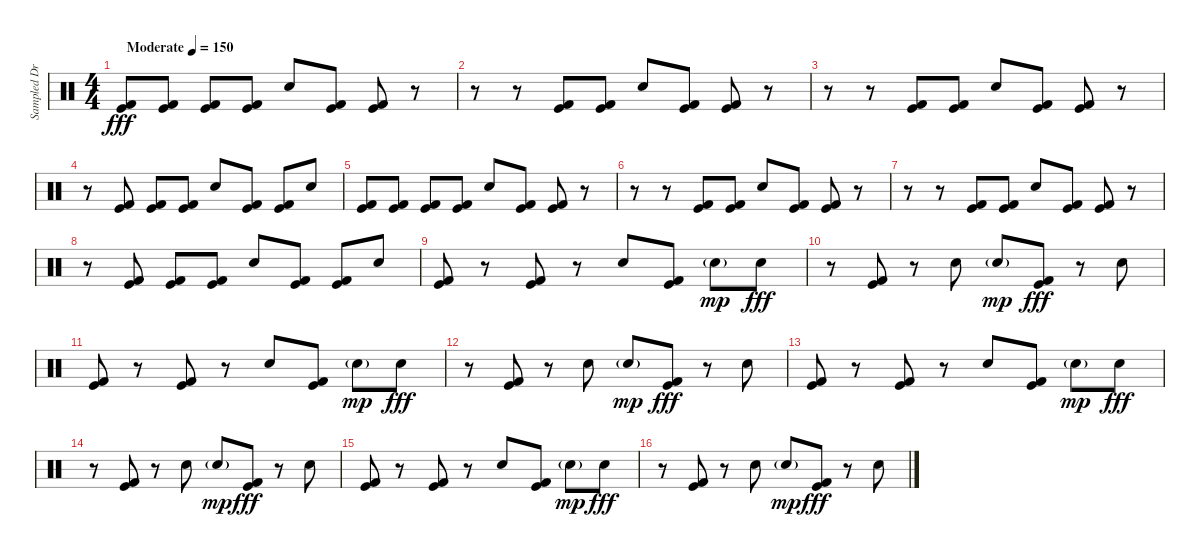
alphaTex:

\track ("Sampled Drums" "Sampled Dr") {instrument percussion}
\staff {score}
\articulation defaults
\ts (4 4)
\tempo (150 "Moderate")
\clef neutral
\ks c
("Kick (hit)" "Kick (hit) 2").8{dy fff} ("Kick (hit)" "Kick (hit) 2").8 ("Kick (hit)" "Kick (hit) 2").8 ("Kick (hit)" "Kick (hit) 2").8 "Electric Snare (hit)".8 ("Kick (hit)" "Kick (hit) 2").8 ("Kick (hit)" "Kick (hit) 2").8 r.8 |
r.8 r.8 ("Kick (hit)" "Kick (hit) 2").8 ("Kick (hit)" "Kick (hit) 2").8 "Electric Snare (hit)".8 ("Kick (hit)" "Kick (hit) 2").8 ("Kick (hit)" "Kick (hit) 2").8 r.8 |
r.8 r.8 ("Kick (hit)" "Kick (hit) 2").8 ("Kick (hit)" "Kick (hit) 2").8 "Electric Snare (hit)".8 ("Kick (hit)" "Kick (hit) 2").8 ("Kick (hit)" "Kick (hit) 2").8 r.8 |
r.8 ("Kick (hit)" "Kick (hit) 2").8 ("Kick (hit)" "Kick (hit) 2").8 ("Kick (hit)" "Kick (hit) 2").8 "Electric Snare (hit)".8 ("Kick (hit)" "Kick (hit) 2").8 ("Kick (hit)" "Kick (hit) 2").8 "Electric Snare (hit)".8 |
("Kick (hit)" "Kick (hit) 2").8 ("Kick (hit)" "Kick (hit) 2").8 ("Kick (hit)" "Kick (hit) 2").8 ("Kick (hit)" "Kick (hit) 2").8 "Electric Snare (hit)".8 ("Kick (hit)" "Kick (hit) 2").8 ("Kick (hit)" "Kick (hit) 2").8 r.8 |
r.8 r.8 ("Kick (hit)" "Kick (hit) 2").8 ("Kick (hit)" "Kick (hit) 2").8 "Electric Snare (hit)".8 ("Kick (hit)" "Kick (hit) 2").8 ("Kick (hit)" "Kick (hit) 2").8 r.8 |
r.8 r.8 ("Kick (hit)" "Kick (hit) 2").8 ("Kick (hit)" "Kick (hit) 2").8 "Electric Snare (hit)".8 ("Kick (hit)" "Kick (hit) 2").8 ("Kick (hit)" "Kick (hit) 2").8 r.8 |
r.8 ("Kick (hit)" "Kick (hit) 2").8 ("Kick (hit)" "Kick (hit) 2").8 ("Kick (hit)" "Kick (hit) 2").8 "Electric Snare (hit)".8 ("Kick (hit)" "Kick (hit) 2").8 ("Kick (hit)" "Kick (hit) 2").8 "Electric Snare (hit)".8 |
("Kick (hit)" "Kick (hit) 2").8 r.8 ("Kick (hit)" "Kick (hit) 2").8 r.8 "Electric Snare (hit)".8 ("Kick (hit)" "Kick (hit) 2").8 "Electric Snare (hit)"{g}.8{dy mp} "Electric Snare (hit)".8{dy fff} |
r.8 ("Kick (hit)" "Kick (hit) 2").8 r.8 "Electric Snare (hit)".8 "Electric Snare (hit)"{g}.8{dy mp} ("Kick (hit)" "Kick (hit) 2").8{dy fff} r.8 "Electric Snare (hit)".8 |
("Kick (hit)" "Kick (hit) 2").8 r.8 ("Kick (hit)" "Kick (hit) 2").8 r.8 "Electric Snare (hit)".8 ("Kick (hit)" "Kick (hit) 2").8 "Electric Snare (hit)"{g}.8{dy mp} "Electric Snare (hit)".8{dy fff} |
r.8 ("Kick (hit)" "Kick (hit) 2").8 r.8 "Electric Snare (hit)".8 "Electric Snare (hit)"{g}.8{dy mp} ("Kick (hit)" "Kick (hit) 2").8{dy fff} r.8 "Electric Snare (hit)".8 |
("Kick (hit)" "Kick (hit) 2").8 r.8 ("Kick (hit)" "Kick (hit) 2").8 r.8 "Electric Snare (hit)".8 ("Kick (hit)" "Kick (hit) 2").8 "Electric Snare (hit)"{g}.8{dy mp} "Electric Snare (hit)".8{dy fff} |
r.8 ("Kick (hit)" "Kick (hit) 2").8 r.8 "Electric Snare (hit)".8 "Electric Snare (hit)"{g}.8{dy mp} ("Kick (hit)" "Kick (hit) 2").8{dy fff} r.8 "Electric Snare (hit)".8 |
("Kick (hit)" "Kick (hit) 2").8 r.8 ("Kick (hit)" "Kick (hit) 2").8 r.8 "Electric Snare (hit)".8 ("Kick (hit)" "Kick (hit) 2").8 "Electric Snare (hit)"{g}.8{dy mp} "Electric Snare (hit)".8{dy fff} |
r.8 ("Kick (hit)" "Kick (hit) 2").8 r.8 "Electric Snare (hit)".8 "Electric Snare (hit)"{g}.8{dy mp} ("Kick (hit)" "Kick (hit) 2").8{dy fff} r.8 "Electric Snare (hit)".8
